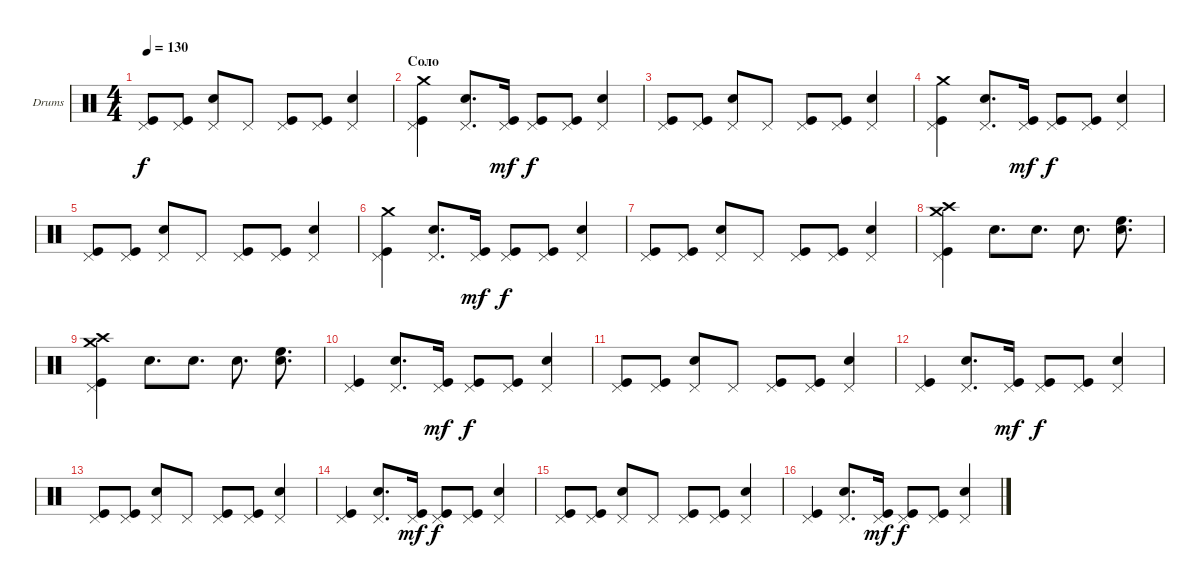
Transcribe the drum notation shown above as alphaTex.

\defaultSystemsLayout 4
\bracketExtendMode groupsimilarinstruments
\firstSystemTrackNameOrientation horizontal
\otherSystemsTrackNameOrientation horizontal
\track ("Е. Кулаков" "Drums") {instrument percussion}
\staff {score}
\articulation defaults
\ts (4 4)
\tempo 130
\clef neutral
\ks c
("Kick (hit)" "Pedal Hi-Hat (hit)").8{dy f} ("Kick (hit)" "Pedal Hi-Hat (hit)").8 ("Snare (hit) 2" "Pedal Hi-Hat (hit)").8 "Pedal Hi-Hat (hit)".8 ("Kick (hit)" "Pedal Hi-Hat (hit)").8 ("Kick (hit)" "Pedal Hi-Hat (hit)").8 ("Snare (hit) 2" "Pedal Hi-Hat (hit)").4 |
\section ("" "Соло")
("Kick (hit)" "Pedal Hi-Hat (hit)" "Crash medium (hit)").4 ("Snare (hit) 2" "Pedal Hi-Hat (hit)").8{d} ("Kick (hit)" "Pedal Hi-Hat (hit)").16{dy mf} ("Kick (hit)" "Pedal Hi-Hat (hit)").8{dy f} ("Kick (hit)" "Pedal Hi-Hat (hit)").8 ("Snare (hit) 2" "Pedal Hi-Hat (hit)").4 |
("Kick (hit)" "Pedal Hi-Hat (hit)").8 ("Kick (hit)" "Pedal Hi-Hat (hit)").8 ("Snare (hit) 2" "Pedal Hi-Hat (hit)").8 "Pedal Hi-Hat (hit)".8 ("Kick (hit)" "Pedal Hi-Hat (hit)").8 ("Kick (hit)" "Pedal Hi-Hat (hit)").8 ("Snare (hit) 2" "Pedal Hi-Hat (hit)").4 |
("Kick (hit)" "Pedal Hi-Hat (hit)" "Crash medium (hit)").4 ("Snare (hit) 2" "Pedal Hi-Hat (hit)").8{d} ("Kick (hit)" "Pedal Hi-Hat (hit)").16{dy mf} ("Kick (hit)" "Pedal Hi-Hat (hit)").8{dy f} ("Kick (hit)" "Pedal Hi-Hat (hit)").8 ("Snare (hit) 2" "Pedal Hi-Hat (hit)").4 |
("Kick (hit)" "Pedal Hi-Hat (hit)").8 ("Kick (hit)" "Pedal Hi-Hat (hit)").8 ("Snare (hit) 2" "Pedal Hi-Hat (hit)").8 "Pedal Hi-Hat (hit)".8 ("Kick (hit)" "Pedal Hi-Hat (hit)").8 ("Kick (hit)" "Pedal Hi-Hat (hit)").8 ("Snare (hit) 2" "Pedal Hi-Hat (hit)").4 |
("Kick (hit)" "Pedal Hi-Hat (hit)" "Crash medium (hit)").4 ("Snare (hit) 2" "Pedal Hi-Hat (hit)").8{d} ("Kick (hit)" "Pedal Hi-Hat (hit)").16{dy mf} ("Kick (hit)" "Pedal Hi-Hat (hit)").8{dy f} ("Kick (hit)" "Pedal Hi-Hat (hit)").8 ("Snare (hit) 2" "Pedal Hi-Hat (hit)").4 |
("Kick (hit)" "Pedal Hi-Hat (hit)").8 ("Kick (hit)" "Pedal Hi-Hat (hit)").8 ("Snare (hit) 2" "Pedal Hi-Hat (hit)").8 "Pedal Hi-Hat (hit)".8 ("Kick (hit)" "Pedal Hi-Hat (hit)").8 ("Kick (hit)" "Pedal Hi-Hat (hit)").8 ("Snare (hit) 2" "Pedal Hi-Hat (hit)").4 |
("Kick (hit)" "Pedal Hi-Hat (hit)" "Crash medium (hit)" "Crash high (hit)").4 "Snare (hit) 2".8{d} "Snare (hit) 2".8{d} "Snare (hit) 2".8{d} ("Snare (hit) 2" "High Floor Tom (hit)").8{d} |
("Kick (hit)" "Pedal Hi-Hat (hit)" "Crash medium (hit)" "Crash high (hit)").4 "Snare (hit) 2".8{d} "Snare (hit) 2".8{d} "Snare (hit) 2".8{d} ("Snare (hit) 2" "High Floor Tom (hit)").8{d} |
("Kick (hit)" "Pedal Hi-Hat (hit)").4 ("Snare (hit) 2" "Pedal Hi-Hat (hit)").8{d} ("Kick (hit)" "Pedal Hi-Hat (hit)").16{dy mf} ("Kick (hit)" "Pedal Hi-Hat (hit)").8{dy f} ("Kick (hit)" "Pedal Hi-Hat (hit)").8 ("Snare (hit) 2" "Pedal Hi-Hat (hit)").4 |
("Kick (hit)" "Pedal Hi-Hat (hit)").8 ("Kick (hit)" "Pedal Hi-Hat (hit)").8 ("Snare (hit) 2" "Pedal Hi-Hat (hit)").8 "Pedal Hi-Hat (hit)".8 ("Kick (hit)" "Pedal Hi-Hat (hit)").8 ("Kick (hit)" "Pedal Hi-Hat (hit)").8 ("Snare (hit) 2" "Pedal Hi-Hat (hit)").4 |
("Kick (hit)" "Pedal Hi-Hat (hit)").4 ("Snare (hit) 2" "Pedal Hi-Hat (hit)").8{d} ("Kick (hit)" "Pedal Hi-Hat (hit)").16{dy mf} ("Kick (hit)" "Pedal Hi-Hat (hit)").8{dy f} ("Kick (hit)" "Pedal Hi-Hat (hit)").8 ("Snare (hit) 2" "Pedal Hi-Hat (hit)").4 |
("Kick (hit)" "Pedal Hi-Hat (hit)").8 ("Kick (hit)" "Pedal Hi-Hat (hit)").8 ("Snare (hit) 2" "Pedal Hi-Hat (hit)").8 "Pedal Hi-Hat (hit)".8 ("Kick (hit)" "Pedal Hi-Hat (hit)").8 ("Kick (hit)" "Pedal Hi-Hat (hit)").8 ("Snare (hit) 2" "Pedal Hi-Hat (hit)").4 |
("Kick (hit)" "Pedal Hi-Hat (hit)").4 ("Snare (hit) 2" "Pedal Hi-Hat (hit)").8{d} ("Kick (hit)" "Pedal Hi-Hat (hit)").16{dy mf} ("Kick (hit)" "Pedal Hi-Hat (hit)").8{dy f} ("Kick (hit)" "Pedal Hi-Hat (hit)").8 ("Snare (hit) 2" "Pedal Hi-Hat (hit)").4 |
("Kick (hit)" "Pedal Hi-Hat (hit)").8 ("Kick (hit)" "Pedal Hi-Hat (hit)").8 ("Snare (hit) 2" "Pedal Hi-Hat (hit)").8 "Pedal Hi-Hat (hit)".8 ("Kick (hit)" "Pedal Hi-Hat (hit)").8 ("Kick (hit)" "Pedal Hi-Hat (hit)").8 ("Snare (hit) 2" "Pedal Hi-Hat (hit)").4 |
("Kick (hit)" "Pedal Hi-Hat (hit)").4 ("Snare (hit) 2" "Pedal Hi-Hat (hit)").8{d} ("Kick (hit)" "Pedal Hi-Hat (hit)").16{dy mf} ("Kick (hit)" "Pedal Hi-Hat (hit)").8{dy f} ("Kick (hit)" "Pedal Hi-Hat (hit)").8 ("Snare (hit) 2" "Pedal Hi-Hat (hit)").4
